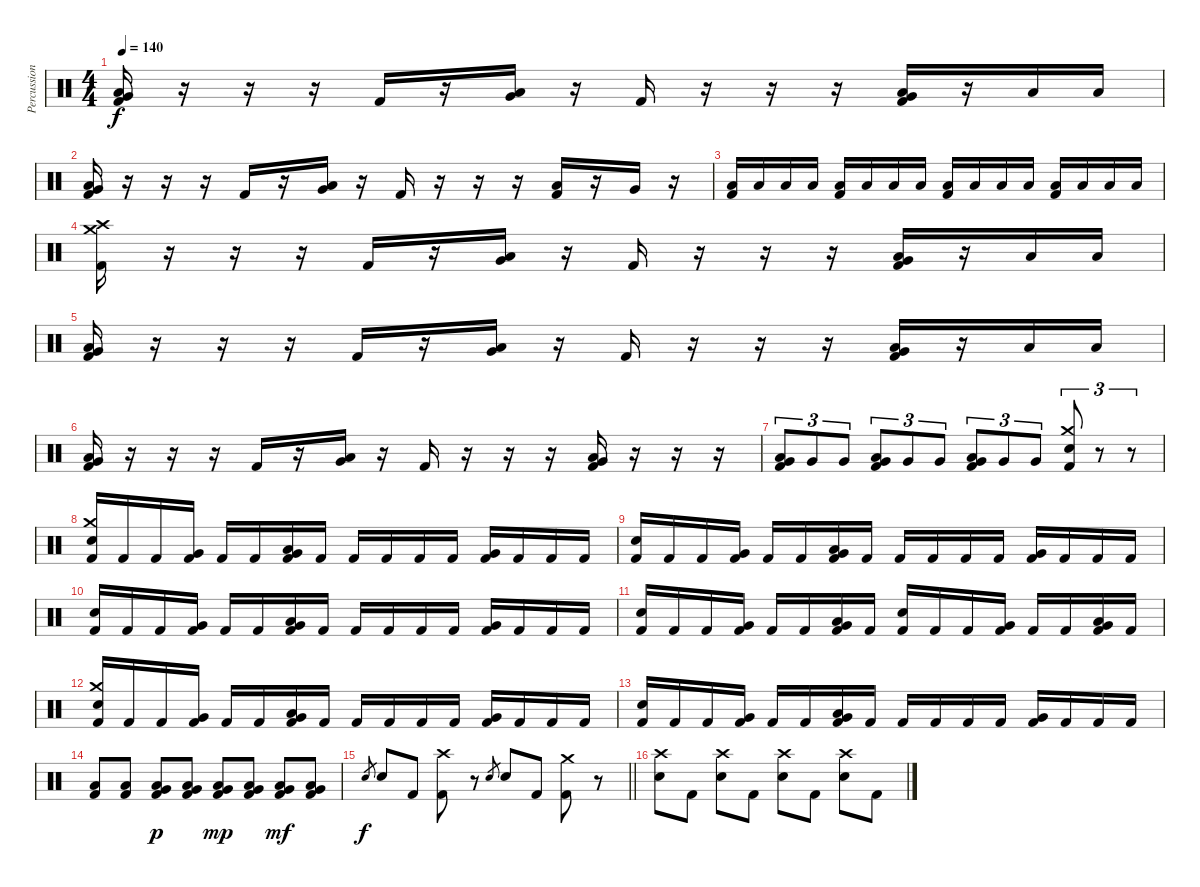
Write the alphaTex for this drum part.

\track ("Percussion" "Percussion") {instrument percussion}
\staff {score}
\articulation defaults
\ts (4 4)
\tempo 140
\clef neutral
\ks c
("Low Tom (hit)" "Very Low Tom (hit)" "Kick (hit) 2").16{dy f} r.16 r.16 r.16 "Kick (hit) 2".16 r.16 ("Low Tom (hit)" "Very Low Tom (hit)").16 r.16 "Kick (hit) 2".16 r.16 r.16 r.16 ("Low Tom (hit)" "Very Low Tom (hit)" "Kick (hit) 2").16 r.16 "Low Tom (hit)".16 "Low Tom (hit)".16 |
("Low Tom (hit)" "Very Low Tom (hit)" "Kick (hit) 2").16 r.16 r.16 r.16 "Kick (hit) 2".16 r.16 ("Low Tom (hit)" "Very Low Tom (hit)").16 r.16 "Kick (hit) 2".16 r.16 r.16 r.16 ("Low Tom (hit)" "Kick (hit) 2").16 r.16 "Very Low Tom (hit)".16 r.16 |
("Low Tom (hit)" "Kick (hit) 2").16 "Low Tom (hit)".16 "Low Tom (hit)".16 "Low Tom (hit)".16 ("Low Tom (hit)" "Kick (hit) 2").16 "Low Tom (hit)".16 "Low Tom (hit)".16 "Low Tom (hit)".16 ("Low Tom (hit)" "Kick (hit) 2").16 "Low Tom (hit)".16 "Low Tom (hit)".16 "Low Tom (hit)".16 ("Low Tom (hit)" "Kick (hit) 2").16 "Low Tom (hit)".16 "Low Tom (hit)".16 "Low Tom (hit)".16 |
("Crash high (hit)" "Crash medium (hit)" "Kick (hit) 2").16 r.16 r.16 r.16 "Kick (hit) 2".16 r.16 ("Low Tom (hit)" "Very Low Tom (hit)").16 r.16 "Kick (hit) 2".16 r.16 r.16 r.16 ("Low Tom (hit)" "Very Low Tom (hit)" "Kick (hit) 2").16 r.16 "Low Tom (hit)".16 "Low Tom (hit)".16 |
("Low Tom (hit)" "Very Low Tom (hit)" "Kick (hit) 2").16 r.16 r.16 r.16 "Kick (hit) 2".16 r.16 ("Low Tom (hit)" "Very Low Tom (hit)").16 r.16 "Kick (hit) 2".16 r.16 r.16 r.16 ("Low Tom (hit)" "Very Low Tom (hit)" "Kick (hit) 2").16 r.16 "Low Tom (hit)".16 "Low Tom (hit)".16 |
("Low Tom (hit)" "Very Low Tom (hit)" "Kick (hit) 2").16 r.16 r.16 r.16 "Kick (hit) 2".16 r.16 ("Low Tom (hit)" "Very Low Tom (hit)").16 r.16 "Kick (hit) 2".16 r.16 r.16 r.16 ("Low Tom (hit)" "Very Low Tom (hit)" "Kick (hit) 2").16 r.16 r.16 r.16 |
("Low Tom (hit)" "Very Low Tom (hit)" "Kick (hit) 2").8{tu (3 2)} "Very Low Tom (hit)".8{tu (3 2)} "Very Low Tom (hit)".8{tu (3 2)} ("Low Tom (hit)" "Very Low Tom (hit)" "Kick (hit) 2").8{tu (3 2)} "Very Low Tom (hit)".8{tu (3 2)} "Very Low Tom (hit)".8{tu (3 2)} ("Low Tom (hit)" "Very Low Tom (hit)" "Kick (hit) 2").8{tu (3 2)} "Very Low Tom (hit)".8{tu (3 2)} "Very Low Tom (hit)".8{tu (3 2)} ("Crash medium (hit)" "Snare (hit) 2" "Kick (hit) 2").8{tu (3 2)} r.8{tu (3 2)} r.8{tu (3 2)} |
("Crash medium (hit)" "Snare (hit) 2" "Kick (hit) 2").16 "Kick (hit) 2".16 "Kick (hit) 2".16 ("Very Low Tom (hit)" "Kick (hit) 2").16 "Kick (hit) 2".16 "Kick (hit) 2".16 ("Low Tom (hit)" "Very Low Tom (hit)" "Kick (hit) 2").16 "Kick (hit) 2".16 "Kick (hit) 2".16 "Kick (hit) 2".16 "Kick (hit) 2".16 "Kick (hit) 2".16 ("Very Low Tom (hit)" "Kick (hit) 2").16 "Kick (hit) 2".16 "Kick (hit) 2".16 "Kick (hit) 2".16 |
("Snare (hit) 2" "Kick (hit) 2").16 "Kick (hit) 2".16 "Kick (hit) 2".16 ("Very Low Tom (hit)" "Kick (hit) 2").16 "Kick (hit) 2".16 "Kick (hit) 2".16 ("Low Tom (hit)" "Very Low Tom (hit)" "Kick (hit) 2").16 "Kick (hit) 2".16 "Kick (hit) 2".16 "Kick (hit) 2".16 "Kick (hit) 2".16 "Kick (hit) 2".16 ("Very Low Tom (hit)" "Kick (hit) 2").16 "Kick (hit) 2".16 "Kick (hit) 2".16 "Kick (hit) 2".16 |
("Snare (hit) 2" "Kick (hit) 2").16 "Kick (hit) 2".16 "Kick (hit) 2".16 ("Very Low Tom (hit)" "Kick (hit) 2").16 "Kick (hit) 2".16 "Kick (hit) 2".16 ("Low Tom (hit)" "Very Low Tom (hit)" "Kick (hit) 2").16 "Kick (hit) 2".16 "Kick (hit) 2".16 "Kick (hit) 2".16 "Kick (hit) 2".16 "Kick (hit) 2".16 ("Very Low Tom (hit)" "Kick (hit) 2").16 "Kick (hit) 2".16 "Kick (hit) 2".16 "Kick (hit) 2".16 |
("Snare (hit) 2" "Kick (hit) 2").16 "Kick (hit) 2".16 "Kick (hit) 2".16 ("Very Low Tom (hit)" "Kick (hit) 2").16 "Kick (hit) 2".16 "Kick (hit) 2".16 ("Low Tom (hit)" "Very Low Tom (hit)" "Kick (hit) 2").16 "Kick (hit) 2".16 ("Snare (hit) 2" "Kick (hit) 2").16 "Kick (hit) 2".16 "Kick (hit) 2".16 ("Very Low Tom (hit)" "Kick (hit) 2").16 "Kick (hit) 2".16 "Kick (hit) 2".16 ("Low Tom (hit)" "Very Low Tom (hit)" "Kick (hit) 2").16 "Kick (hit) 2".16 |
("Crash medium (hit)" "Snare (hit) 2" "Kick (hit) 2").16 "Kick (hit) 2".16 "Kick (hit) 2".16 ("Very Low Tom (hit)" "Kick (hit) 2").16 "Kick (hit) 2".16 "Kick (hit) 2".16 ("Low Tom (hit)" "Very Low Tom (hit)" "Kick (hit) 2").16 "Kick (hit) 2".16 "Kick (hit) 2".16 "Kick (hit) 2".16 "Kick (hit) 2".16 "Kick (hit) 2".16 ("Very Low Tom (hit)" "Kick (hit) 2").16 "Kick (hit) 2".16 "Kick (hit) 2".16 "Kick (hit) 2".16 |
("Snare (hit) 2" "Kick (hit) 2").16 "Kick (hit) 2".16 "Kick (hit) 2".16 ("Very Low Tom (hit)" "Kick (hit) 2").16 "Kick (hit) 2".16 "Kick (hit) 2".16 ("Low Tom (hit)" "Very Low Tom (hit)" "Kick (hit) 2").16 "Kick (hit) 2".16 "Kick (hit) 2".16 "Kick (hit) 2".16 "Kick (hit) 2".16 "Kick (hit) 2".16 ("Very Low Tom (hit)" "Kick (hit) 2").16 "Kick (hit) 2".16 "Kick (hit) 2".16 "Kick (hit) 2".16 |
("Low Tom (hit)" "Kick (hit) 2").8 ("Low Tom (hit)" "Kick (hit) 2").8 ("Low Tom (hit)" "Very Low Tom (hit)" "Kick (hit) 2").8{dy p} ("Low Tom (hit)" "Very Low Tom (hit)" "Kick (hit) 2").8 ("Low Tom (hit)" "Very Low Tom (hit)" "Kick (hit) 2").8{dy mp} ("Low Tom (hit)" "Very Low Tom (hit)" "Kick (hit) 2").8 ("Low Tom (hit)" "Very Low Tom (hit)" "Kick (hit) 2").8{dy mf} ("Low Tom (hit)" "Very Low Tom (hit)" "Kick (hit) 2").8 |
\barLineRight lightlight "Snare (hit) 2".8{gr dy f} "Snare (hit) 2".8 "Kick (hit) 2".8
("Crash high (hit)" "Kick (hit) 2").8 r.8 "Snare (hit) 2".8{gr} "Snare (hit) 2".8 "Kick (hit) 2".8 ("Crash medium (hit)" "Kick (hit) 2").8 r.8 |
("Crash high (hit)" "Snare (hit) 2").8 "Kick (hit) 2".8 ("Crash high (hit)" "Snare (hit) 2").8 "Kick (hit) 2".8 ("Crash high (hit)" "Snare (hit) 2").8 "Kick (hit) 2".8 ("Crash high (hit)" "Snare (hit) 2").8 "Kick (hit) 2".8
